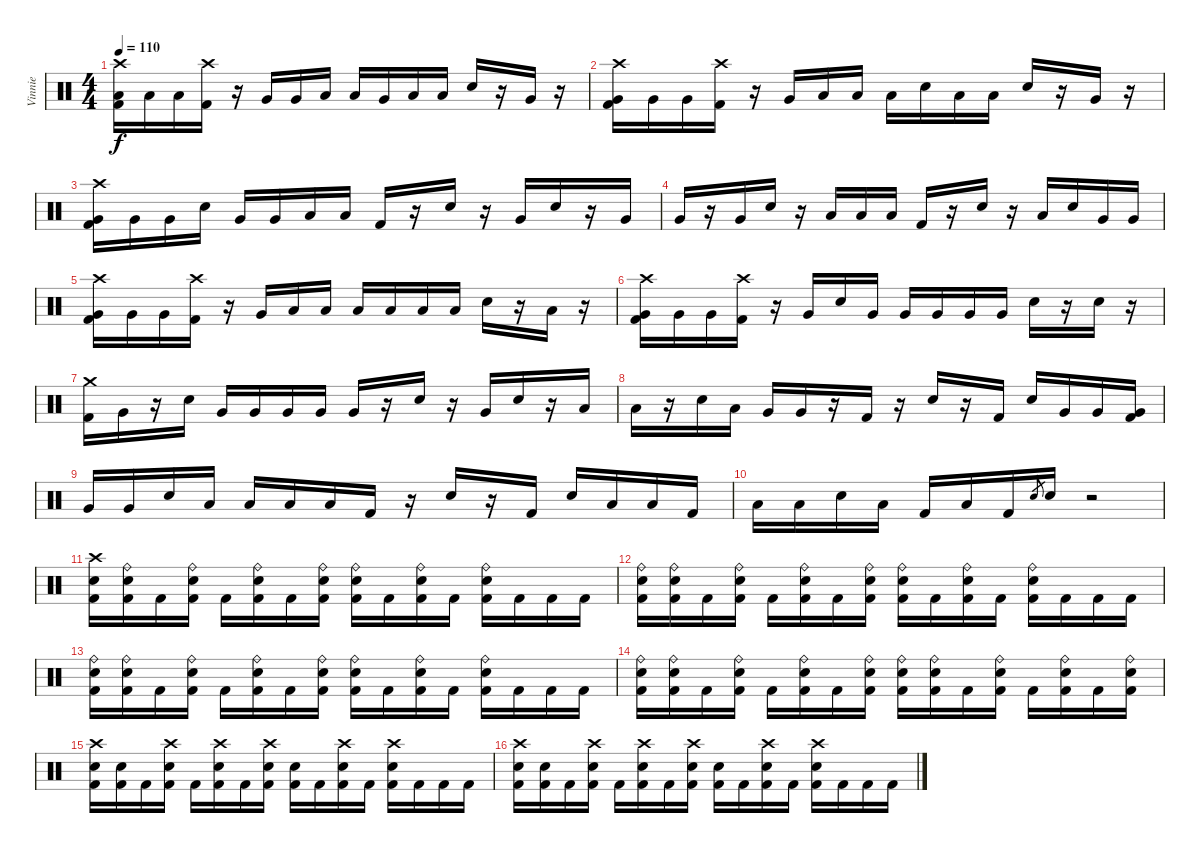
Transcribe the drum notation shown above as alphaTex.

\track ("Vinnie" "Vinnie") {instrument percussion}
\staff {score}
\articulation defaults
\ts (4 4)
\tempo 110
\clef neutral
\ks c
("Crash high (hit)" "Low Floor Tom (hit)" "Kick (hit) 2").16{dy f} "Low Floor Tom (hit)".16 "Low Floor Tom (hit)".16 ("Crash high (hit)" "Kick (hit) 2").16 r.16 "Very Low Tom (hit)".16 "Very Low Tom (hit)".16 "Low Floor Tom (hit)".16 "Low Floor Tom (hit)".16 "Very Low Tom (hit)".16 "Low Floor Tom (hit)".16 "Low Floor Tom (hit)".16 "Electric Snare (hit)".16 r.16 "Very Low Tom (hit)".16 r.16 |
("Crash high (hit)" "Very Low Tom (hit)" "Kick (hit) 2").16 "Very Low Tom (hit)".16 "Very Low Tom (hit)".16 ("Crash high (hit)" "Kick (hit) 2").16 r.16 "Very Low Tom (hit)".16 "Low Floor Tom (hit)".16 "Low Floor Tom (hit)".16 "Low Floor Tom (hit)".16 "Electric Snare (hit)".16 "Low Floor Tom (hit)".16 "Low Floor Tom (hit)".16 "Electric Snare (hit)".16 r.16 "Very Low Tom (hit)".16 r.16 |
("Crash high (hit)" "Very Low Tom (hit)" "Kick (hit) 2").16 "Very Low Tom (hit)".16 "Very Low Tom (hit)".16 "Electric Snare (hit)".16 "Very Low Tom (hit)".16 "Very Low Tom (hit)".16 "Low Floor Tom (hit)".16 "Low Floor Tom (hit)".16 "Kick (hit) 2".16 r.16 "Electric Snare (hit)".16 r.16 "Very Low Tom (hit)".16 "Electric Snare (hit)".16 r.16 "Very Low Tom (hit)".16 |
"Very Low Tom (hit)".16 r.16 "Very Low Tom (hit)".16 "Electric Snare (hit)".16 r.16 "Low Floor Tom (hit)".16 "Low Floor Tom (hit)".16 "Low Floor Tom (hit)".16 "Kick (hit) 2".16 r.16 "Electric Snare (hit)".16 r.16 "Low Floor Tom (hit)".16 "Electric Snare (hit)".16 "Very Low Tom (hit)".16 "Very Low Tom (hit)".16 |
("Crash high (hit)" "Very Low Tom (hit)" "Kick (hit) 2").16 "Very Low Tom (hit)".16 "Very Low Tom (hit)".16 ("Crash high (hit)" "Kick (hit) 2").16 r.16 "Very Low Tom (hit)".16 "Low Floor Tom (hit)".16 "Low Floor Tom (hit)".16 "Low Floor Tom (hit)".16 "Low Floor Tom (hit)".16 "Low Floor Tom (hit)".16 "Low Floor Tom (hit)".16 "Electric Snare (hit)".16 r.16 "Low Floor Tom (hit)".16 r.16 |
("Crash high (hit)" "Very Low Tom (hit)" "Kick (hit) 2").16 "Very Low Tom (hit)".16 "Very Low Tom (hit)".16 ("Crash high (hit)" "Kick (hit) 2").16 r.16 "Very Low Tom (hit)".16 "Electric Snare (hit)".16 "Very Low Tom (hit)".16 "Very Low Tom (hit)".16 "Very Low Tom (hit)".16 "Very Low Tom (hit)".16 "Very Low Tom (hit)".16 "Electric Snare (hit)".16 r.16 "Electric Snare (hit)".16 r.16 |
("Crash medium (hit)" "Kick (hit) 2").16 "Very Low Tom (hit)".16 r.16 "Electric Snare (hit)".16 "Very Low Tom (hit)".16 "Very Low Tom (hit)".16 "Very Low Tom (hit)".16 "Very Low Tom (hit)".16 "Very Low Tom (hit)".16 r.16 "Electric Snare (hit)".16 r.16 "Very Low Tom (hit)".16 "Electric Snare (hit)".16 r.16 "Low Floor Tom (hit)".16 |
"Low Floor Tom (hit)".16 r.16 "Electric Snare (hit)".16 "Low Floor Tom (hit)".16 "Very Low Tom (hit)".16 "Very Low Tom (hit)".16 r.16 "Kick (hit) 2".16 r.16 "Electric Snare (hit)".16 r.16 "Kick (hit) 2".16 "Electric Snare (hit)".16 "Very Low Tom (hit)".16 "Very Low Tom (hit)".16 ("Very Low Tom (hit)" "Kick (hit) 2").16 |
"Very Low Tom (hit)".16 "Very Low Tom (hit)".16 "Electric Snare (hit)".16 "Low Floor Tom (hit)".16 "Low Floor Tom (hit)".16 "Low Floor Tom (hit)".16 "Low Floor Tom (hit)".16 "Kick (hit) 2".16 r.16 "Electric Snare (hit)".16 r.16 "Kick (hit) 2".16 "Electric Snare (hit)".16 "Low Floor Tom (hit)".16 "Low Floor Tom (hit)".16 "Kick (hit) 2".16 |
"Low Floor Tom (hit)".16 "Low Floor Tom (hit)".16 "Electric Snare (hit)".16 "Low Floor Tom (hit)".16 "Kick (hit) 2".16 "Low Floor Tom (hit)".16 "Kick (hit) 2".16 "Electric Snare (hit)".8{gr} "Electric Snare (hit)".16 r.2 |
("Crash high (hit)" "Electric Snare (hit)" "Kick (hit) 2").16 ("Ride (bell)" "Electric Snare (hit)" "Kick (hit) 2").16 "Kick (hit) 2".16 ("Ride (bell)" "Electric Snare (hit)" "Kick (hit) 2").16 "Kick (hit) 2".16 ("Ride (bell)" "Electric Snare (hit)" "Kick (hit) 2").16 "Kick (hit) 2".16 ("Ride (bell)" "Electric Snare (hit)" "Kick (hit) 2").16 ("Ride (bell)" "Electric Snare (hit)" "Kick (hit) 2").16 "Kick (hit) 2".16 ("Ride (bell)" "Electric Snare (hit)" "Kick (hit) 2").16 "Kick (hit) 2".16 ("Ride (bell)" "Electric Snare (hit)" "Kick (hit) 2").16 "Kick (hit) 2".16 "Kick (hit) 2".16 "Kick (hit) 2".16 |
("Ride (bell)" "Electric Snare (hit)" "Kick (hit) 2").16 ("Ride (bell)" "Electric Snare (hit)" "Kick (hit) 2").16 "Kick (hit) 2".16 ("Ride (bell)" "Electric Snare (hit)" "Kick (hit) 2").16 "Kick (hit) 2".16 ("Ride (bell)" "Electric Snare (hit)" "Kick (hit) 2").16 "Kick (hit) 2".16 ("Ride (bell)" "Electric Snare (hit)" "Kick (hit) 2").16 ("Ride (bell)" "Electric Snare (hit)" "Kick (hit) 2").16 "Kick (hit) 2".16 ("Ride (bell)" "Electric Snare (hit)" "Kick (hit) 2").16 "Kick (hit) 2".16 ("Ride (bell)" "Electric Snare (hit)" "Kick (hit) 2").16 "Kick (hit) 2".16 "Kick (hit) 2".16 "Kick (hit) 2".16 |
("Ride (bell)" "Electric Snare (hit)" "Kick (hit) 2").16 ("Ride (bell)" "Electric Snare (hit)" "Kick (hit) 2").16 "Kick (hit) 2".16 ("Ride (bell)" "Electric Snare (hit)" "Kick (hit) 2").16 "Kick (hit) 2".16 ("Ride (bell)" "Electric Snare (hit)" "Kick (hit) 2").16 "Kick (hit) 2".16 ("Ride (bell)" "Electric Snare (hit)" "Kick (hit) 2").16 ("Ride (bell)" "Electric Snare (hit)" "Kick (hit) 2").16 "Kick (hit) 2".16 ("Ride (bell)" "Electric Snare (hit)" "Kick (hit) 2").16 "Kick (hit) 2".16 ("Ride (bell)" "Electric Snare (hit)" "Kick (hit) 2").16 "Kick (hit) 2".16 "Kick (hit) 2".16 "Kick (hit) 2".16 |
("Ride (bell)" "Electric Snare (hit)" "Kick (hit) 2").16 ("Ride (bell)" "Electric Snare (hit)" "Kick (hit) 2").16 "Kick (hit) 2".16 ("Ride (bell)" "Electric Snare (hit)" "Kick (hit) 2").16 "Kick (hit) 2".16 ("Ride (bell)" "Electric Snare (hit)" "Kick (hit) 2").16 "Kick (hit) 2".16 ("Ride (bell)" "Electric Snare (hit)" "Kick (hit) 2").16 ("Ride (bell)" "Electric Snare (hit)" "Kick (hit) 2").16 ("Ride (bell)" "Electric Snare (hit)" "Kick (hit) 2").16 "Kick (hit) 2".16 ("Ride (bell)" "Electric Snare (hit)" "Kick (hit) 2").16 "Kick (hit) 2".16 ("Ride (bell)" "Electric Snare (hit)" "Kick (hit) 2").16 "Kick (hit) 2".16 ("Ride (bell)" "Electric Snare (hit)" "Kick (hit) 2").16 |
("Crash high (hit)" "Electric Snare (hit)" "Kick (hit) 2").16 ("Electric Snare (hit)" "Kick (hit) 2").16 "Kick (hit) 2".16 ("Crash high (hit)" "Electric Snare (hit)" "Kick (hit) 2").16 "Kick (hit) 2".16 ("Crash high (hit)" "Electric Snare (hit)" "Kick (hit) 2").16 "Kick (hit) 2".16 ("Crash high (hit)" "Electric Snare (hit)" "Kick (hit) 2").16 ("Electric Snare (hit)" "Kick (hit) 2").16 "Kick (hit) 2".16 ("Crash high (hit)" "Electric Snare (hit)" "Kick (hit) 2").16 "Kick (hit) 2".16 ("Crash high (hit)" "Electric Snare (hit)" "Kick (hit) 2").16 "Kick (hit) 2".16 "Kick (hit) 2".16 "Kick (hit) 2".16 |
("Crash high (hit)" "Electric Snare (hit)" "Kick (hit) 2").16 ("Electric Snare (hit)" "Kick (hit) 2").16 "Kick (hit) 2".16 ("Crash high (hit)" "Electric Snare (hit)" "Kick (hit) 2").16 "Kick (hit) 2".16 ("Crash high (hit)" "Electric Snare (hit)" "Kick (hit) 2").16 "Kick (hit) 2".16 ("Crash high (hit)" "Electric Snare (hit)" "Kick (hit) 2").16 ("Electric Snare (hit)" "Kick (hit) 2").16 "Kick (hit) 2".16 ("Crash high (hit)" "Electric Snare (hit)" "Kick (hit) 2").16 "Kick (hit) 2".16 ("Crash high (hit)" "Electric Snare (hit)" "Kick (hit) 2").16 "Kick (hit) 2".16 "Kick (hit) 2".16 "Kick (hit) 2".16
